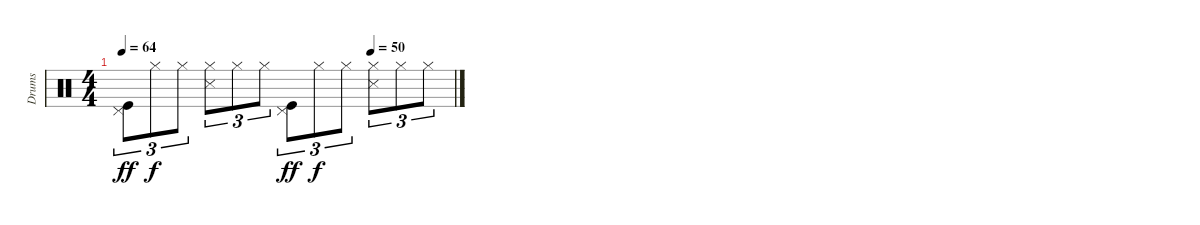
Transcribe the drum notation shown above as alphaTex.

\track ("Drums" "Drums") {instrument percussion}
\staff {score}
\articulation defaults
\ts (4 4)
\tempo 64
\tempo (50 0.75)
\clef neutral
\ks c
("Pedal Hi-Hat (hit)" "Kick (hit)").8{tu (3 2) dy ff} "Hi-Hat (closed)".8{tu (3 2) dy f} "Hi-Hat (closed)".8{tu (3 2)} ("Hi-Hat (closed)" "Snare (side stick) 3").8{tu (3 2)} "Hi-Hat (closed)".8{tu (3 2)} "Hi-Hat (closed)".8{tu (3 2)} ("Pedal Hi-Hat (hit)" "Kick (hit)").8{tu (3 2) dy ff} "Hi-Hat (closed)".8{tu (3 2) dy f} "Hi-Hat (closed)".8{tu (3 2)} ("Hi-Hat (closed)" "Snare (side stick) 3").8{tu (3 2)} "Hi-Hat (closed)".8{tu (3 2)} "Hi-Hat (closed)".8{tu (3 2)}
